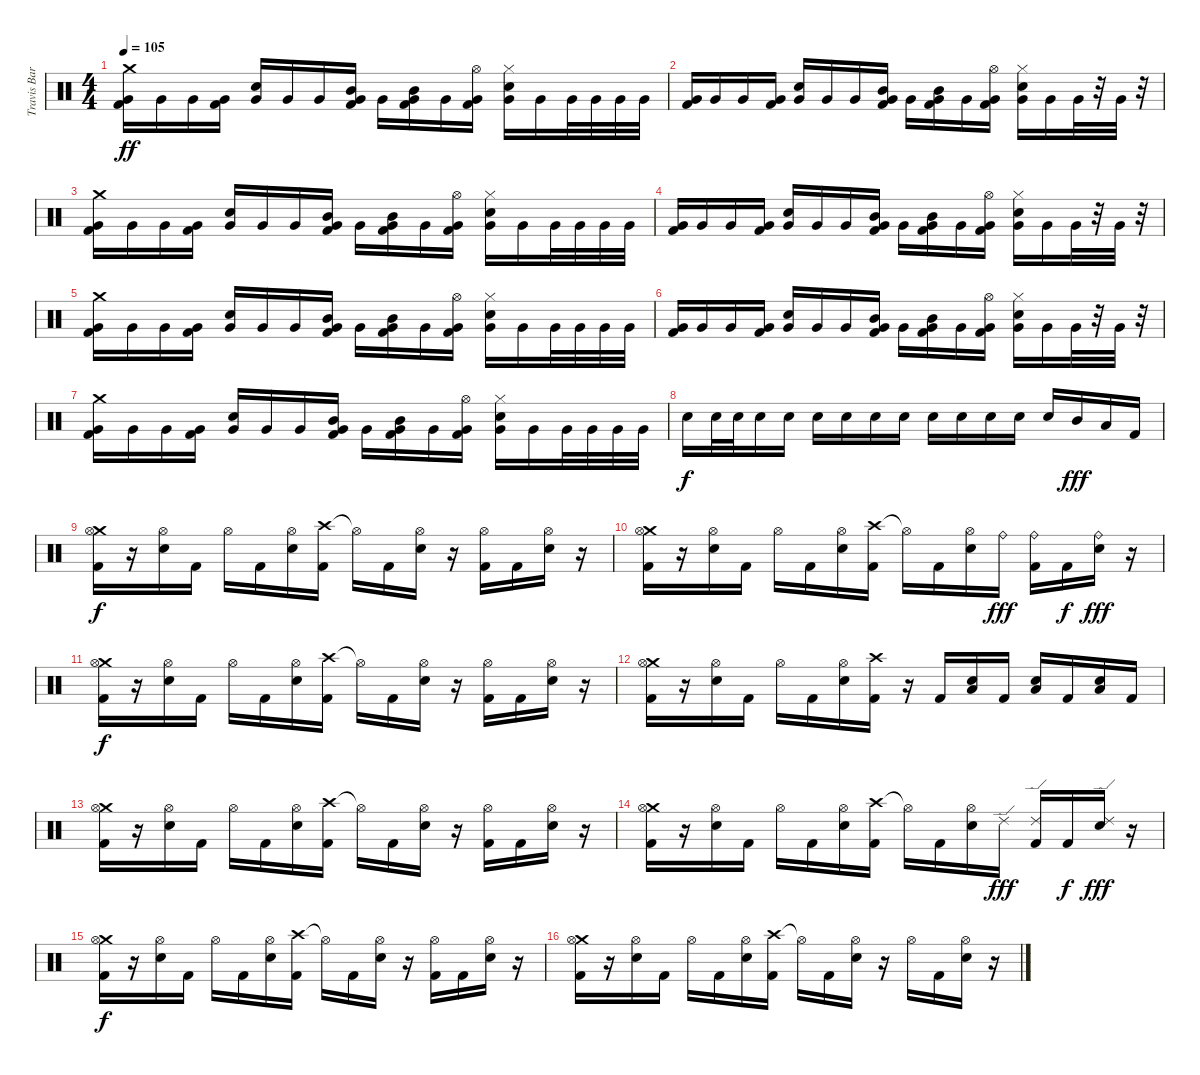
\track ("Travis Barker(Drums)" "Travis Bar") {instrument percussion}
\staff {score}
\articulation defaults
\ts (4 4)
\tempo 105
\clef neutral
\ks c
("Crash medium (hit)" "Very Low Tom (hit)" "Kick (hit) 2").16{dy ff} "Very Low Tom (hit)".16 "Very Low Tom (hit)".16 ("Very Low Tom (hit)" "Kick (hit) 2").16 ("Electric Snare (hit)" "Very Low Tom (hit)").16 "Very Low Tom (hit)".16 "Very Low Tom (hit)".16 ("Mid Tom (hit)" "Very Low Tom (hit)" "Kick (hit) 2").16 "Very Low Tom (hit)".16 ("Mid Tom (hit)" "Very Low Tom (hit)" "Kick (hit) 2").16 "Very Low Tom (hit)".16 ("Hi-Hat (open)" "Very Low Tom (hit)" "Kick (hit) 2").16 ("Hi-Hat (closed)" "Electric Snare (hit)" "Very Low Tom (hit)").16 "Very Low Tom (hit)".16 "Very Low Tom (hit)".32 "Very Low Tom (hit)".32 "Very Low Tom (hit)".32 "Very Low Tom (hit)".32 |
("Very Low Tom (hit)" "Kick (hit) 2").16 "Very Low Tom (hit)".16 "Very Low Tom (hit)".16 ("Very Low Tom (hit)" "Kick (hit) 2").16 ("Electric Snare (hit)" "Very Low Tom (hit)").16 "Very Low Tom (hit)".16 "Very Low Tom (hit)".16 ("Mid Tom (hit)" "Very Low Tom (hit)" "Kick (hit) 2").16 "Very Low Tom (hit)".16 ("Mid Tom (hit)" "Very Low Tom (hit)" "Kick (hit) 2").16 "Very Low Tom (hit)".16 ("Hi-Hat (open)" "Very Low Tom (hit)" "Kick (hit) 2").16 ("Hi-Hat (closed)" "Electric Snare (hit)" "Very Low Tom (hit)").16 "Very Low Tom (hit)".16 "Very Low Tom (hit)".32 r.32 "Very Low Tom (hit)".32 r.32 |
("Crash medium (hit)" "Very Low Tom (hit)" "Kick (hit) 2").16 "Very Low Tom (hit)".16 "Very Low Tom (hit)".16 ("Very Low Tom (hit)" "Kick (hit) 2").16 ("Electric Snare (hit)" "Very Low Tom (hit)").16 "Very Low Tom (hit)".16 "Very Low Tom (hit)".16 ("Mid Tom (hit)" "Very Low Tom (hit)" "Kick (hit) 2").16 "Very Low Tom (hit)".16 ("Mid Tom (hit)" "Very Low Tom (hit)" "Kick (hit) 2").16 "Very Low Tom (hit)".16 ("Hi-Hat (open)" "Very Low Tom (hit)" "Kick (hit) 2").16 ("Hi-Hat (closed)" "Electric Snare (hit)" "Very Low Tom (hit)").16 "Very Low Tom (hit)".16 "Very Low Tom (hit)".32 "Very Low Tom (hit)".32 "Very Low Tom (hit)".32 "Very Low Tom (hit)".32 |
("Very Low Tom (hit)" "Kick (hit) 2").16 "Very Low Tom (hit)".16 "Very Low Tom (hit)".16 ("Very Low Tom (hit)" "Kick (hit) 2").16 ("Electric Snare (hit)" "Very Low Tom (hit)").16 "Very Low Tom (hit)".16 "Very Low Tom (hit)".16 ("Mid Tom (hit)" "Very Low Tom (hit)" "Kick (hit) 2").16 "Very Low Tom (hit)".16 ("Mid Tom (hit)" "Very Low Tom (hit)" "Kick (hit) 2").16 "Very Low Tom (hit)".16 ("Hi-Hat (open)" "Very Low Tom (hit)" "Kick (hit) 2").16 ("Hi-Hat (closed)" "Electric Snare (hit)" "Very Low Tom (hit)").16 "Very Low Tom (hit)".16 "Very Low Tom (hit)".32 r.32 "Very Low Tom (hit)".32 r.32 |
("Crash medium (hit)" "Very Low Tom (hit)" "Kick (hit) 2").16 "Very Low Tom (hit)".16 "Very Low Tom (hit)".16 ("Very Low Tom (hit)" "Kick (hit) 2").16 ("Electric Snare (hit)" "Very Low Tom (hit)").16 "Very Low Tom (hit)".16 "Very Low Tom (hit)".16 ("Mid Tom (hit)" "Very Low Tom (hit)" "Kick (hit) 2").16 "Very Low Tom (hit)".16 ("Mid Tom (hit)" "Very Low Tom (hit)" "Kick (hit) 2").16 "Very Low Tom (hit)".16 ("Hi-Hat (open)" "Very Low Tom (hit)" "Kick (hit) 2").16 ("Hi-Hat (closed)" "Electric Snare (hit)" "Very Low Tom (hit)").16 "Very Low Tom (hit)".16 "Very Low Tom (hit)".32 "Very Low Tom (hit)".32 "Very Low Tom (hit)".32 "Very Low Tom (hit)".32 |
("Very Low Tom (hit)" "Kick (hit) 2").16 "Very Low Tom (hit)".16 "Very Low Tom (hit)".16 ("Very Low Tom (hit)" "Kick (hit) 2").16 ("Electric Snare (hit)" "Very Low Tom (hit)").16 "Very Low Tom (hit)".16 "Very Low Tom (hit)".16 ("Mid Tom (hit)" "Very Low Tom (hit)" "Kick (hit) 2").16 "Very Low Tom (hit)".16 ("Mid Tom (hit)" "Very Low Tom (hit)" "Kick (hit) 2").16 "Very Low Tom (hit)".16 ("Hi-Hat (open)" "Very Low Tom (hit)" "Kick (hit) 2").16 ("Hi-Hat (closed)" "Electric Snare (hit)" "Very Low Tom (hit)").16 "Very Low Tom (hit)".16 "Very Low Tom (hit)".32 r.32 "Very Low Tom (hit)".32 r.32 |
("Crash medium (hit)" "Very Low Tom (hit)" "Kick (hit) 2").16 "Very Low Tom (hit)".16 "Very Low Tom (hit)".16 ("Very Low Tom (hit)" "Kick (hit) 2").16 ("Electric Snare (hit)" "Very Low Tom (hit)").16 "Very Low Tom (hit)".16 "Very Low Tom (hit)".16 ("Mid Tom (hit)" "Very Low Tom (hit)" "Kick (hit) 2").16 "Very Low Tom (hit)".16 ("Mid Tom (hit)" "Very Low Tom (hit)" "Kick (hit) 2").16 "Very Low Tom (hit)".16 ("Hi-Hat (open)" "Very Low Tom (hit)" "Kick (hit) 2").16 ("Hi-Hat (closed)" "Electric Snare (hit)" "Very Low Tom (hit)").16 "Very Low Tom (hit)".16 "Very Low Tom (hit)".32 "Very Low Tom (hit)".32 "Very Low Tom (hit)".32 "Very Low Tom (hit)".32 |
"Electric Snare (hit)".16{dy f} "Electric Snare (hit)".32 "Electric Snare (hit)".32 "Electric Snare (hit)".16 "Electric Snare (hit)".16 "Electric Snare (hit)".16 "Electric Snare (hit)".16 "Electric Snare (hit)".16 "Electric Snare (hit)".16 "Electric Snare (hit)".16 "Electric Snare (hit)".16 "Electric Snare (hit)".16 "Electric Snare (hit)".16 "Electric Snare (hit)".16 "Mid Tom (hit)".16{dy fff} "Low Tom (hit)".16 "Kick (hit) 2".16 |
("Crash medium (hit)" "Hi-Hat (open)" "Kick (hit) 2").16{dy f} r.16 ("Hi-Hat (open)" "Electric Snare (hit)").16 "Kick (hit) 2".16 "Hi-Hat (open)".16 "Kick (hit) 2".16 ("Hi-Hat (open)" "Electric Snare (hit)").16 ("Crash high (hit)" "Kick (hit) 2").16 "Hi-Hat (open)"{t}.16 "Kick (hit) 2".16 ("Hi-Hat (open)" "Electric Snare (hit)").16 r.16 ("Hi-Hat (open)" "Kick (hit) 2").16 "Kick (hit) 2".16 ("Hi-Hat (open)" "Electric Snare (hit)").16 r.16 |
("Crash medium (hit)" "Hi-Hat (open)" "Kick (hit) 2").16 r.16 ("Hi-Hat (open)" "Electric Snare (hit)").16 "Kick (hit) 2".16 "Hi-Hat (open)".16 "Kick (hit) 2".16 ("Hi-Hat (open)" "Electric Snare (hit)").16 ("Crash high (hit)" "Kick (hit) 2").16 "Hi-Hat (open)"{t}.16 "Kick (hit) 2".16 ("Hi-Hat (open)" "Electric Snare (hit)").16 "Ride (bell)".16{dy fff} ("Ride (bell)" "Kick (hit) 2").16 "Kick (hit) 2".16{dy f} ("Ride (bell)" "Electric Snare (hit)").16{dy fff} r.16 |
("Crash medium (hit)" "Hi-Hat (open)" "Kick (hit) 2").16{dy f} r.16 ("Hi-Hat (open)" "Electric Snare (hit)").16 "Kick (hit) 2".16 "Hi-Hat (open)".16 "Kick (hit) 2".16 ("Hi-Hat (open)" "Electric Snare (hit)").16 ("Crash high (hit)" "Kick (hit) 2").16 "Hi-Hat (open)"{t}.16 "Kick (hit) 2".16 ("Hi-Hat (open)" "Electric Snare (hit)").16 r.16 ("Hi-Hat (open)" "Kick (hit) 2").16 "Kick (hit) 2".16 ("Hi-Hat (open)" "Electric Snare (hit)").16 r.16 |
("Crash medium (hit)" "Hi-Hat (open)" "Kick (hit) 2").16 r.16 ("Hi-Hat (open)" "Electric Snare (hit)").16 "Kick (hit) 2".16 "Hi-Hat (open)".16 "Kick (hit) 2".16 ("Hi-Hat (open)" "Electric Snare (hit)").16 ("Crash high (hit)" "Kick (hit) 2").16 r.16 "Kick (hit) 2".16 ("Low Tom (hit)" "Electric Snare (hit)").16 "Kick (hit) 2".16 ("Low Tom (hit)" "Electric Snare (hit)").16 "Kick (hit) 2".16 ("Low Tom (hit)" "Electric Snare (hit)").16 "Kick (hit) 2".16 |
("Crash medium (hit)" "Hi-Hat (open)" "Kick (hit) 2").16 r.16 ("Hi-Hat (open)" "Electric Snare (hit)").16 "Kick (hit) 2".16 "Hi-Hat (open)".16 "Kick (hit) 2".16 ("Hi-Hat (open)" "Electric Snare (hit)").16 ("Crash high (hit)" "Kick (hit) 2").16 "Hi-Hat (open)"{t}.16 "Kick (hit) 2".16 ("Hi-Hat (open)" "Electric Snare (hit)").16 r.16 ("Hi-Hat (open)" "Kick (hit) 2").16 "Kick (hit) 2".16 ("Hi-Hat (open)" "Electric Snare (hit)").16 r.16 |
("Crash medium (hit)" "Hi-Hat (open)" "Kick (hit) 2").16 r.16 ("Hi-Hat (open)" "Electric Snare (hit)").16 "Kick (hit) 2".16 "Hi-Hat (open)".16 "Kick (hit) 2".16 ("Hi-Hat (open)" "Electric Snare (hit)").16 ("Crash high (hit)" "Kick (hit) 2").16 "Hi-Hat (open)"{t}.16 "Kick (hit) 2".16 ("Hi-Hat (open)" "Electric Snare (hit)").16 "Ride (edge) 2".16{dy fff} ("Ride (edge) 2" "Kick (hit) 2").16 "Kick (hit) 2".16{dy f} ("Ride (edge) 2" "Electric Snare (hit)").16{dy fff} r.16 |
("Crash medium (hit)" "Hi-Hat (open)" "Kick (hit) 2").16{dy f} r.16 ("Hi-Hat (open)" "Electric Snare (hit)").16 "Kick (hit) 2".16 "Hi-Hat (open)".16 "Kick (hit) 2".16 ("Hi-Hat (open)" "Electric Snare (hit)").16 ("Crash high (hit)" "Kick (hit) 2").16 "Hi-Hat (open)"{t}.16 "Kick (hit) 2".16 ("Hi-Hat (open)" "Electric Snare (hit)").16 r.16 ("Hi-Hat (open)" "Kick (hit) 2").16 "Kick (hit) 2".16 ("Hi-Hat (open)" "Electric Snare (hit)").16 r.16 |
("Crash medium (hit)" "Hi-Hat (open)" "Kick (hit) 2").16 r.16 ("Hi-Hat (open)" "Electric Snare (hit)").16 "Kick (hit) 2".16 "Hi-Hat (open)".16 "Kick (hit) 2".16 ("Hi-Hat (open)" "Electric Snare (hit)").16 ("Crash high (hit)" "Kick (hit) 2").16 "Hi-Hat (open)"{t}.16 "Kick (hit) 2".16 ("Hi-Hat (open)" "Electric Snare (hit)").16 r.16 "Hi-Hat (open)".16 "Kick (hit) 2".16 ("Hi-Hat (open)" "Electric Snare (hit)").16 r.16
